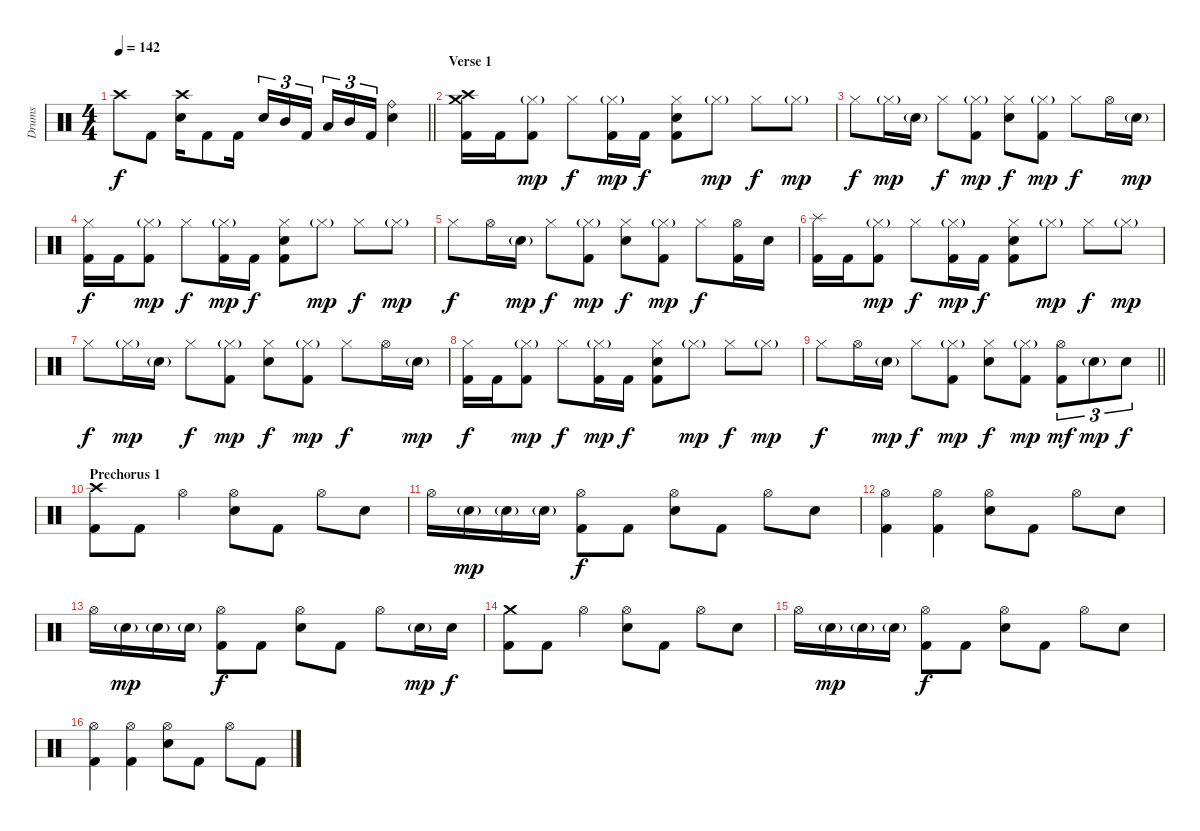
\track ("Drums" "Drums") {instrument percussion}
\staff {score}
\articulation defaults
\ts (4 4)
\tempo 142
\clef neutral
\barLineRight lightlight
\ks c "Crash high (hit)".8{dy f} "Kick (hit) 2".8
("Crash high (hit)" "Electric Snare (hit)").16 "Kick (hit) 2".8 "Kick (hit) 2".16 "Electric Snare (hit)".16{tu (3 2)} "Mid Tom (hit)".16{tu (3 2)} "Kick (hit) 2".16{tu (3 2)} "Low Floor Tom (hit)".16{tu (3 2)} "Mid Tom (hit)".16{tu (3 2)} "Kick (hit) 2".16{tu (3 2)} ("Ride (bell)" "Electric Snare (hit)").4 |
\section ("" "Verse 1")
("Crash high (hit)" "Crash medium (hit)" "Kick (hit) 2").16 "Kick (hit) 2".16 ("Hi-Hat (closed)"{g} "Kick (hit) 2").8{dy mp} "Hi-Hat (closed)".8{dy f} ("Hi-Hat (closed)"{g} "Kick (hit) 2").16{dy mp} "Kick (hit) 2".16{dy f} ("Hi-Hat (closed)" "Electric Snare (hit)" "Kick (hit) 2").8 "Hi-Hat (closed)"{g}.8{dy mp} "Hi-Hat (closed)".8{dy f} "Hi-Hat (closed)"{g}.8{dy mp} |
"Hi-Hat (closed)".8{dy f} "Hi-Hat (closed)"{g}.16{dy mp} "Electric Snare (hit)"{g}.16 "Hi-Hat (closed)".8{dy f} ("Hi-Hat (closed)"{g} "Kick (hit) 2").8{dy mp} ("Hi-Hat (closed)" "Electric Snare (hit)").8{dy f} ("Hi-Hat (closed)"{g} "Kick (hit) 2").8{dy mp} "Hi-Hat (closed)".8{dy f} "Hi-Hat (open)".16 "Electric Snare (hit)"{g}.16{dy mp} |
("Hi-Hat (closed)" "Kick (hit) 2").16{dy f} "Kick (hit) 2".16 ("Hi-Hat (closed)"{g} "Kick (hit) 2").8{dy mp} "Hi-Hat (closed)".8{dy f} ("Hi-Hat (closed)"{g} "Kick (hit) 2").16{dy mp} "Kick (hit) 2".16{dy f} ("Hi-Hat (closed)" "Electric Snare (hit)" "Kick (hit) 2").8 "Hi-Hat (closed)"{g}.8{dy mp} "Hi-Hat (closed)".8{dy f} "Hi-Hat (closed)"{g}.8{dy mp} |
"Hi-Hat (closed)".8{dy f} "Hi-Hat (open)".16 "Electric Snare (hit)"{g}.16{dy mp} "Hi-Hat (closed)".8{dy f} ("Hi-Hat (closed)"{g} "Kick (hit) 2").8{dy mp} ("Hi-Hat (closed)" "Electric Snare (hit)").8{dy f} ("Hi-Hat (closed)"{g} "Kick (hit) 2").8{dy mp} "Hi-Hat (closed)".8{dy f} ("Hi-Hat (open)" "Kick (hit) 2").16 "Electric Snare (hit)".16 |
("Splash (hit)" "Kick (hit) 2").16 "Kick (hit) 2".16 ("Hi-Hat (closed)"{g} "Kick (hit) 2").8{dy mp} "Hi-Hat (closed)".8{dy f} ("Hi-Hat (closed)"{g} "Kick (hit) 2").16{dy mp} "Kick (hit) 2".16{dy f} ("Hi-Hat (closed)" "Electric Snare (hit)" "Kick (hit) 2").8 "Hi-Hat (closed)"{g}.8{dy mp} "Hi-Hat (closed)".8{dy f} "Hi-Hat (closed)"{g}.8{dy mp} |
"Hi-Hat (closed)".8{dy f} "Hi-Hat (closed)"{g}.16{dy mp} "Electric Snare (hit)"{g}.16 "Hi-Hat (closed)".8{dy f} ("Hi-Hat (closed)"{g} "Kick (hit) 2").8{dy mp} ("Hi-Hat (closed)" "Electric Snare (hit)").8{dy f} ("Hi-Hat (closed)"{g} "Kick (hit) 2").8{dy mp} "Hi-Hat (closed)".8{dy f} "Hi-Hat (open)".16 "Electric Snare (hit)"{g}.16{dy mp} |
("Hi-Hat (closed)" "Kick (hit) 2").16{dy f} "Kick (hit) 2".16 ("Hi-Hat (closed)"{g} "Kick (hit) 2").8{dy mp} "Hi-Hat (closed)".8{dy f} ("Hi-Hat (closed)"{g} "Kick (hit) 2").16{dy mp} "Kick (hit) 2".16{dy f} ("Hi-Hat (closed)" "Electric Snare (hit)" "Kick (hit) 2").8 "Hi-Hat (closed)"{g}.8{dy mp} "Hi-Hat (closed)".8{dy f} "Hi-Hat (closed)"{g}.8{dy mp} |
\barLineRight lightlight "Hi-Hat (closed)".8{dy f} "Hi-Hat (open)".16 "Electric Snare (hit)"{g}.16{dy mp} "Hi-Hat (closed)".8{dy f}
("Hi-Hat (closed)"{g} "Kick (hit) 2").8{dy mp} ("Hi-Hat (closed)" "Electric Snare (hit)").8{dy f} ("Hi-Hat (closed)"{g} "Kick (hit) 2").8{dy mp} ("Hi-Hat (open)" "Kick (hit) 2").8{tu (3 2) dy mf} "Electric Snare (hit)"{g}.8{tu (3 2) dy mp} "Electric Snare (hit)".8{tu (3 2) dy f} |
\section ("" "Prechorus 1")
("Crash high (hit)" "Kick (hit) 2").8 "Kick (hit) 2".8 "Hi-Hat (open)".4 ("Hi-Hat (open)" "Electric Snare (hit)").8 "Kick (hit) 2".8 "Hi-Hat (open)".8 "Electric Snare (hit)".8 |
"Hi-Hat (open)".16 "Electric Snare (hit)"{g}.16{dy mp} "Electric Snare (hit)"{g}.16 "Electric Snare (hit)"{g}.16 ("Hi-Hat (open)" "Kick (hit) 2").8{dy f} "Kick (hit) 2".8 ("Hi-Hat (open)" "Electric Snare (hit)").8 "Kick (hit) 2".8 "Hi-Hat (open)".8 "Electric Snare (hit)".8 |
("Hi-Hat (open)" "Kick (hit) 2").4 ("Hi-Hat (open)" "Kick (hit) 2").4 ("Hi-Hat (open)" "Electric Snare (hit)").8 "Kick (hit) 2".8 "Hi-Hat (open)".8 "Electric Snare (hit)".8 |
"Hi-Hat (open)".16 "Electric Snare (hit)"{g}.16{dy mp} "Electric Snare (hit)"{g}.16 "Electric Snare (hit)"{g}.16 ("Hi-Hat (open)" "Kick (hit) 2").8{dy f} "Kick (hit) 2".8 ("Hi-Hat (open)" "Electric Snare (hit)").8 "Kick (hit) 2".8 "Hi-Hat (open)".8 "Electric Snare (hit)"{g}.16{dy mp} "Electric Snare (hit)".16{dy f} |
("Crash medium (hit)" "Kick (hit) 2").8 "Kick (hit) 2".8 "Hi-Hat (open)".4 ("Hi-Hat (open)" "Electric Snare (hit)").8 "Kick (hit) 2".8 "Hi-Hat (open)".8 "Electric Snare (hit)".8 |
"Hi-Hat (open)".16 "Electric Snare (hit)"{g}.16{dy mp} "Electric Snare (hit)"{g}.16 "Electric Snare (hit)"{g}.16 ("Hi-Hat (open)" "Kick (hit) 2").8{dy f} "Kick (hit) 2".8 ("Hi-Hat (open)" "Electric Snare (hit)").8 "Kick (hit) 2".8 "Hi-Hat (open)".8 "Electric Snare (hit)".8 |
("Hi-Hat (open)" "Kick (hit) 2").4 ("Hi-Hat (open)" "Kick (hit) 2").4 ("Hi-Hat (open)" "Electric Snare (hit)").8 "Kick (hit) 2".8 "Hi-Hat (open)".8 "Kick (hit) 2".8
